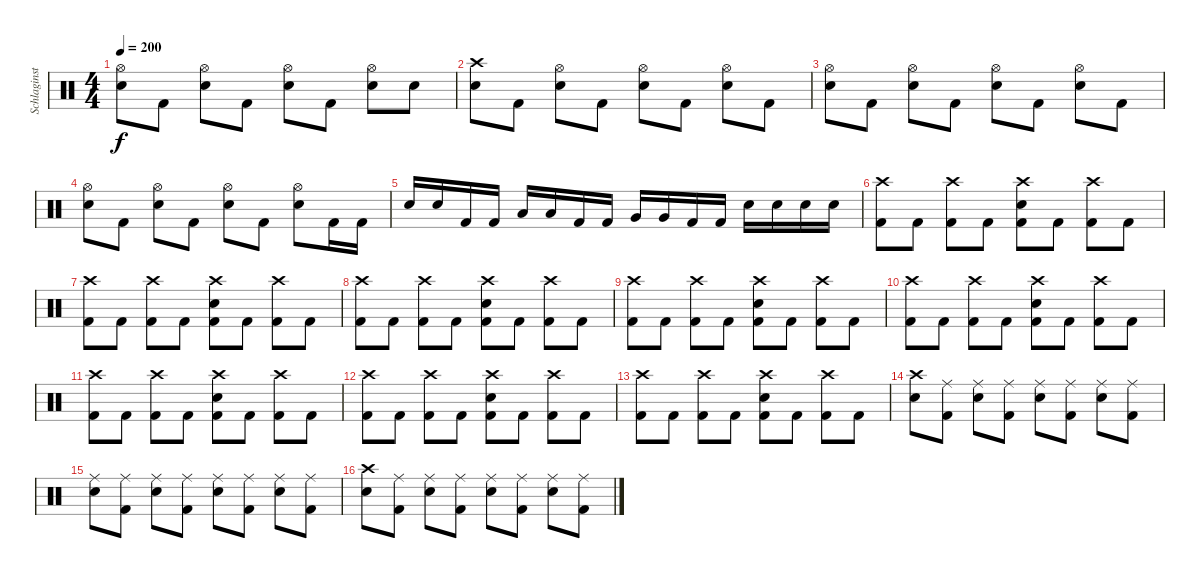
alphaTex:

\track ("Schlaginstrumente - Auswahl" "Schlaginst") {instrument percussion}
\staff {score}
\articulation defaults
\ts (4 4)
\tempo 200
\clef neutral
\ks c
("Hi-Hat (open)" "Electric Snare (hit)").8{dy f} "Kick (hit) 2".8 ("Hi-Hat (open)" "Electric Snare (hit)").8 "Kick (hit) 2".8 ("Hi-Hat (open)" "Electric Snare (hit)").8 "Kick (hit) 2".8 ("Hi-Hat (open)" "Electric Snare (hit)").8 "Electric Snare (hit)".8 |
("Crash high (hit)" "Electric Snare (hit)").8 "Kick (hit) 2".8 ("Hi-Hat (open)" "Electric Snare (hit)").8 "Kick (hit) 2".8 ("Hi-Hat (open)" "Electric Snare (hit)").8 "Kick (hit) 2".8 ("Hi-Hat (open)" "Electric Snare (hit)").8 "Kick (hit) 2".8 |
("Hi-Hat (open)" "Electric Snare (hit)").8 "Kick (hit) 2".8 ("Hi-Hat (open)" "Electric Snare (hit)").8 "Kick (hit) 2".8 ("Hi-Hat (open)" "Electric Snare (hit)").8 "Kick (hit) 2".8 ("Hi-Hat (open)" "Electric Snare (hit)").8 "Kick (hit) 2".8 |
("Hi-Hat (open)" "Electric Snare (hit)").8 "Kick (hit) 2".8 ("Hi-Hat (open)" "Electric Snare (hit)").8 "Kick (hit) 2".8 ("Hi-Hat (open)" "Electric Snare (hit)").8 "Kick (hit) 2".8 ("Hi-Hat (open)" "Electric Snare (hit)").8 "Kick (hit) 2".16 "Kick (hit) 2".16 |
"Electric Snare (hit)".16 "Electric Snare (hit)".16 "Kick (hit) 2".16 "Kick (hit) 2".16 "Low Tom (hit)".16 "Low Tom (hit)".16 "Kick (hit) 2".16 "Kick (hit) 2".16 "Very Low Tom (hit)".16 "Very Low Tom (hit)".16 "Kick (hit) 2".16 "Kick (hit) 2".16 "Electric Snare (hit)".16 "Electric Snare (hit)".16 "Electric Snare (hit)".16 "Electric Snare (hit)".16 |
("Crash high (hit)" "Kick (hit) 2").8 "Kick (hit) 2".8 ("Crash high (hit)" "Kick (hit) 2").8 "Kick (hit) 2".8 ("Crash high (hit)" "Electric Snare (hit)" "Kick (hit) 2").8 "Kick (hit) 2".8 ("Crash high (hit)" "Kick (hit) 2").8 "Kick (hit) 2".8 |
("Crash high (hit)" "Kick (hit) 2").8 "Kick (hit) 2".8 ("Crash high (hit)" "Kick (hit) 2").8 "Kick (hit) 2".8 ("Crash high (hit)" "Electric Snare (hit)" "Kick (hit) 2").8 "Kick (hit) 2".8 ("Crash high (hit)" "Kick (hit) 2").8 "Kick (hit) 2".8 |
("Crash high (hit)" "Kick (hit) 2").8 "Kick (hit) 2".8 ("Crash high (hit)" "Kick (hit) 2").8 "Kick (hit) 2".8 ("Crash high (hit)" "Electric Snare (hit)" "Kick (hit) 2").8 "Kick (hit) 2".8 ("Crash high (hit)" "Kick (hit) 2").8 "Kick (hit) 2".8 |
("Crash high (hit)" "Kick (hit) 2").8 "Kick (hit) 2".8 ("Crash high (hit)" "Kick (hit) 2").8 "Kick (hit) 2".8 ("Crash high (hit)" "Electric Snare (hit)" "Kick (hit) 2").8 "Kick (hit) 2".8 ("Crash high (hit)" "Kick (hit) 2").8 "Kick (hit) 2".8 |
("Crash high (hit)" "Kick (hit) 2").8 "Kick (hit) 2".8 ("Crash high (hit)" "Kick (hit) 2").8 "Kick (hit) 2".8 ("Crash high (hit)" "Electric Snare (hit)" "Kick (hit) 2").8 "Kick (hit) 2".8 ("Crash high (hit)" "Kick (hit) 2").8 "Kick (hit) 2".8 |
("Crash high (hit)" "Kick (hit) 2").8 "Kick (hit) 2".8 ("Crash high (hit)" "Kick (hit) 2").8 "Kick (hit) 2".8 ("Crash high (hit)" "Electric Snare (hit)" "Kick (hit) 2").8 "Kick (hit) 2".8 ("Crash high (hit)" "Kick (hit) 2").8 "Kick (hit) 2".8 |
("Crash high (hit)" "Kick (hit) 2").8 "Kick (hit) 2".8 ("Crash high (hit)" "Kick (hit) 2").8 "Kick (hit) 2".8 ("Crash high (hit)" "Electric Snare (hit)" "Kick (hit) 2").8 "Kick (hit) 2".8 ("Crash high (hit)" "Kick (hit) 2").8 "Kick (hit) 2".8 |
("Crash high (hit)" "Kick (hit) 2").8 "Kick (hit) 2".8 ("Crash high (hit)" "Kick (hit) 2").8 "Kick (hit) 2".8 ("Crash high (hit)" "Electric Snare (hit)" "Kick (hit) 2").8 "Kick (hit) 2".8 ("Crash high (hit)" "Kick (hit) 2").8 "Kick (hit) 2".8 |
("Crash high (hit)" "Electric Snare (hit)").8 ("Ride (middle)" "Kick (hit) 2").8 ("Ride (middle)" "Electric Snare (hit)").8 ("Ride (middle)" "Kick (hit) 2").8 ("Ride (middle)" "Electric Snare (hit)").8 ("Ride (middle)" "Kick (hit) 2").8 ("Ride (middle)" "Electric Snare (hit)").8 ("Ride (middle)" "Kick (hit) 2").8 |
("Ride (middle)" "Electric Snare (hit)").8 ("Ride (middle)" "Kick (hit) 2").8 ("Ride (middle)" "Electric Snare (hit)").8 ("Ride (middle)" "Kick (hit) 2").8 ("Ride (middle)" "Electric Snare (hit)").8 ("Ride (middle)" "Kick (hit) 2").8 ("Ride (middle)" "Electric Snare (hit)").8 ("Ride (middle)" "Kick (hit) 2").8 |
("Crash high (hit)" "Electric Snare (hit)").8 ("Ride (middle)" "Kick (hit) 2").8 ("Ride (middle)" "Electric Snare (hit)").8 ("Ride (middle)" "Kick (hit) 2").8 ("Ride (middle)" "Electric Snare (hit)").8 ("Ride (middle)" "Kick (hit) 2").8 ("Ride (middle)" "Electric Snare (hit)").8 ("Ride (middle)" "Kick (hit) 2").8
